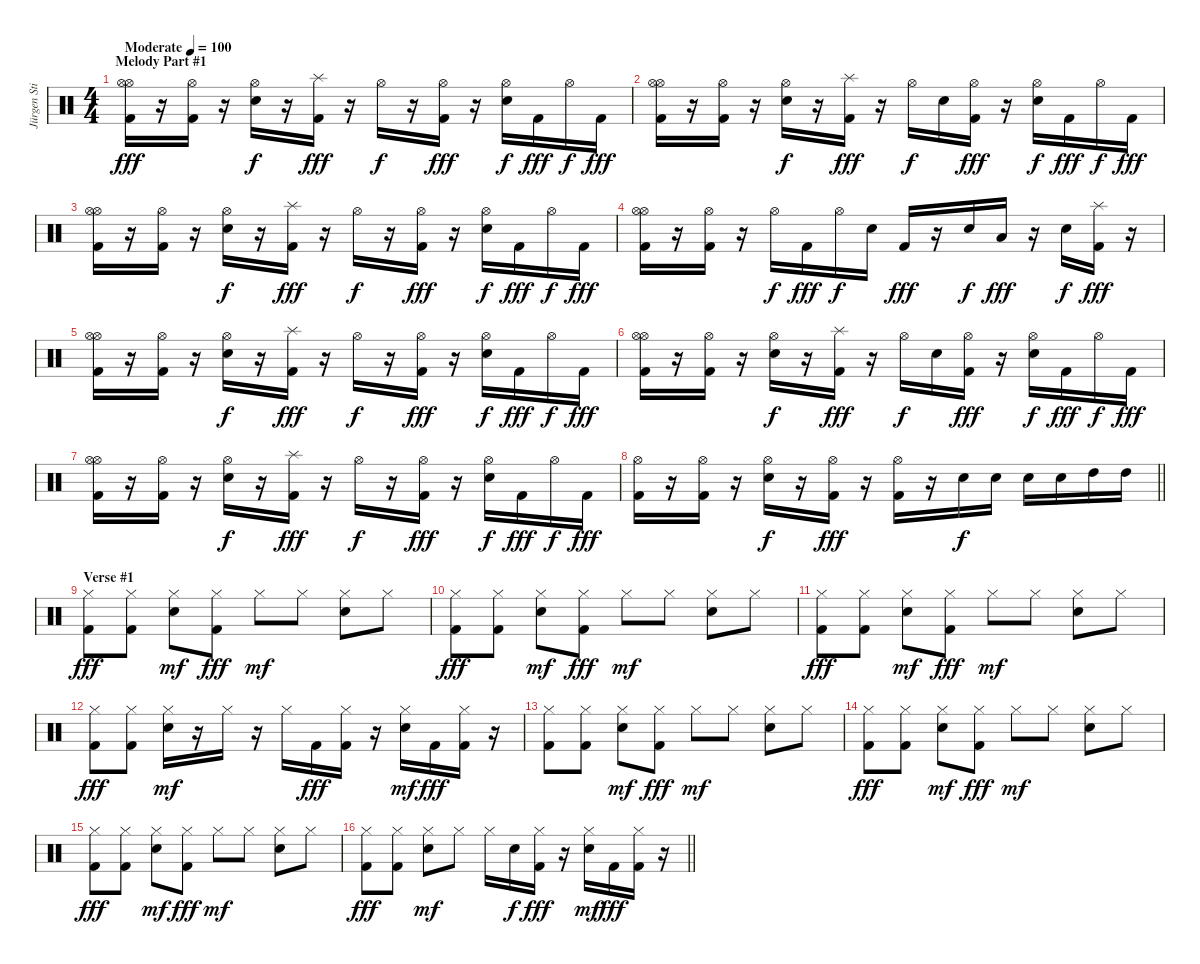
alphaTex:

\track ("Jürgen Stiehle" "Jürgen Sti") {instrument percussion}
\staff {score}
\articulation defaults
\ts (4 4)
\section ("" "Melody Part #1")
\tempo (100 "Moderate")
\clef neutral
\ks c
("Hi-Hat (open)" "Hi-Hat (open)" "Kick (hit) 2").16{dy fff} r.16 ("Hi-Hat (open)" "Kick (hit) 2").16 r.16 ("Hi-Hat (open)" "Electric Snare (hit)").16{dy f} r.16 ("Splash (hit)" "Kick (hit) 2").16{dy fff} r.16 "Hi-Hat (open)".16{dy f} r.16 ("Hi-Hat (open)" "Kick (hit) 2").16{dy fff} r.16 ("Hi-Hat (open)" "Electric Snare (hit)").16{dy f} "Kick (hit) 2".16{dy fff} "Hi-Hat (open)".16{dy f} "Kick (hit) 2".16{dy fff} |
("Hi-Hat (open)" "Hi-Hat (open)" "Kick (hit) 2").16 r.16 ("Hi-Hat (open)" "Kick (hit) 2").16 r.16 ("Hi-Hat (open)" "Electric Snare (hit)").16{dy f} r.16 ("Splash (hit)" "Kick (hit) 2").16{dy fff} r.16 "Hi-Hat (open)".16{dy f} "Electric Snare (hit)".16 ("Hi-Hat (open)" "Kick (hit) 2").16{dy fff} r.16 ("Hi-Hat (open)" "Electric Snare (hit)").16{dy f} "Kick (hit) 2".16{dy fff} "Hi-Hat (open)".16{dy f} "Kick (hit) 2".16{dy fff} |
("Hi-Hat (open)" "Hi-Hat (open)" "Kick (hit) 2").16 r.16 ("Hi-Hat (open)" "Kick (hit) 2").16 r.16 ("Hi-Hat (open)" "Electric Snare (hit)").16{dy f} r.16 ("Splash (hit)" "Kick (hit) 2").16{dy fff} r.16 "Hi-Hat (open)".16{dy f} r.16 ("Hi-Hat (open)" "Kick (hit) 2").16{dy fff} r.16 ("Hi-Hat (open)" "Electric Snare (hit)").16{dy f} "Kick (hit) 2".16{dy fff} "Hi-Hat (open)".16{dy f} "Kick (hit) 2".16{dy fff} |
("Hi-Hat (open)" "Hi-Hat (open)" "Kick (hit) 2").16 r.16 ("Hi-Hat (open)" "Kick (hit) 2").16 r.16 "Hi-Hat (open)".16{dy f} "Kick (hit) 2".16{dy fff} "Hi-Hat (open)".16{dy f} "Electric Snare (hit)".16 "Kick (hit) 2".16{dy fff} r.16 "Electric Snare (hit)".16{dy f} "Low Tom (hit)".16{dy fff} r.16 "Electric Snare (hit)".16{dy f} ("Splash (hit)" "Kick (hit) 2").16{dy fff} r.16 |
("Hi-Hat (open)" "Hi-Hat (open)" "Kick (hit) 2").16 r.16 ("Hi-Hat (open)" "Kick (hit) 2").16 r.16 ("Hi-Hat (open)" "Electric Snare (hit)").16{dy f} r.16 ("Splash (hit)" "Kick (hit) 2").16{dy fff} r.16 "Hi-Hat (open)".16{dy f} r.16 ("Hi-Hat (open)" "Kick (hit) 2").16{dy fff} r.16 ("Hi-Hat (open)" "Electric Snare (hit)").16{dy f} "Kick (hit) 2".16{dy fff} "Hi-Hat (open)".16{dy f} "Kick (hit) 2".16{dy fff} |
("Hi-Hat (open)" "Hi-Hat (open)" "Kick (hit) 2").16 r.16 ("Hi-Hat (open)" "Kick (hit) 2").16 r.16 ("Hi-Hat (open)" "Electric Snare (hit)").16{dy f} r.16 ("Splash (hit)" "Kick (hit) 2").16{dy fff} r.16 "Hi-Hat (open)".16{dy f} "Electric Snare (hit)".16 ("Hi-Hat (open)" "Kick (hit) 2").16{dy fff} r.16 ("Hi-Hat (open)" "Electric Snare (hit)").16{dy f} "Kick (hit) 2".16{dy fff} "Hi-Hat (open)".16{dy f} "Kick (hit) 2".16{dy fff} |
("Hi-Hat (open)" "Hi-Hat (open)" "Kick (hit) 2").16 r.16 ("Hi-Hat (open)" "Kick (hit) 2").16 r.16 ("Hi-Hat (open)" "Electric Snare (hit)").16{dy f} r.16 ("Splash (hit)" "Kick (hit) 2").16{dy fff} r.16 "Hi-Hat (open)".16{dy f} r.16 ("Hi-Hat (open)" "Kick (hit) 2").16{dy fff} r.16 ("Hi-Hat (open)" "Electric Snare (hit)").16{dy f} "Kick (hit) 2".16{dy fff} "Hi-Hat (open)".16{dy f} "Kick (hit) 2".16{dy fff} |
\barLineRight lightlight
("Hi-Hat (open)" "Kick (hit) 2").16 r.16 ("Hi-Hat (open)" "Kick (hit) 2").16 r.16 ("Hi-Hat (open)" "Electric Snare (hit)").16{dy f} r.16 ("Hi-Hat (open)" "Kick (hit) 2").16{dy fff} r.16 ("Hi-Hat (open)" "Kick (hit) 2").16 r.16 "Electric Snare (hit)".16{dy f} "Electric Snare (hit)".16 "Electric Snare (hit)".16 "Electric Snare (hit)".16 "High Tom (hit)".16 "High Tom (hit)".16 |
\section ("" "Verse #1")
("Hi-Hat (closed)" "Kick (hit) 2").8{dy fff} ("Hi-Hat (closed)" "Kick (hit) 2").8 ("Hi-Hat (closed)" "Electric Snare (hit)").8{dy mf} ("Hi-Hat (closed)" "Kick (hit) 2").8{dy fff} "Hi-Hat (closed)".8{dy mf} "Hi-Hat (closed)".8 ("Hi-Hat (closed)" "Electric Snare (hit)").8 "Hi-Hat (closed)".8 |
("Hi-Hat (closed)" "Kick (hit) 2").8{dy fff} ("Hi-Hat (closed)" "Kick (hit) 2").8 ("Hi-Hat (closed)" "Electric Snare (hit)").8{dy mf} ("Hi-Hat (closed)" "Kick (hit) 2").8{dy fff} "Hi-Hat (closed)".8{dy mf} "Hi-Hat (closed)".8 ("Hi-Hat (closed)" "Electric Snare (hit)").8 "Hi-Hat (closed)".8 |
("Hi-Hat (closed)" "Kick (hit) 2").8{dy fff} ("Hi-Hat (closed)" "Kick (hit) 2").8 ("Hi-Hat (closed)" "Electric Snare (hit)").8{dy mf} ("Hi-Hat (closed)" "Kick (hit) 2").8{dy fff} "Hi-Hat (closed)".8{dy mf} "Hi-Hat (closed)".8 ("Hi-Hat (closed)" "Electric Snare (hit)").8 "Hi-Hat (closed)".8 |
("Hi-Hat (closed)" "Kick (hit) 2").8{dy fff} ("Hi-Hat (closed)" "Kick (hit) 2").8 ("Hi-Hat (closed)" "Electric Snare (hit)").16{dy mf} r.16 "Hi-Hat (closed)".16 r.16 "Hi-Hat (closed)".16 "Kick (hit) 2".16{dy fff} ("Hi-Hat (closed)" "Kick (hit) 2").16 r.16 ("Hi-Hat (closed)" "Electric Snare (hit)").16{dy mf} "Kick (hit) 2".16{dy fff} ("Hi-Hat (closed)" "Kick (hit) 2").16 r.16 |
("Hi-Hat (closed)" "Kick (hit) 2").8 ("Hi-Hat (closed)" "Kick (hit) 2").8 ("Hi-Hat (closed)" "Electric Snare (hit)").8{dy mf} ("Hi-Hat (closed)" "Kick (hit) 2").8{dy fff} "Hi-Hat (closed)".8{dy mf} "Hi-Hat (closed)".8 ("Hi-Hat (closed)" "Electric Snare (hit)").8 "Hi-Hat (closed)".8 |
("Hi-Hat (closed)" "Kick (hit) 2").8{dy fff} ("Hi-Hat (closed)" "Kick (hit) 2").8 ("Hi-Hat (closed)" "Electric Snare (hit)").8{dy mf} ("Hi-Hat (closed)" "Kick (hit) 2").8{dy fff} "Hi-Hat (closed)".8{dy mf} "Hi-Hat (closed)".8 ("Hi-Hat (closed)" "Electric Snare (hit)").8 "Hi-Hat (closed)".8 |
("Hi-Hat (closed)" "Kick (hit) 2").8{dy fff} ("Hi-Hat (closed)" "Kick (hit) 2").8 ("Hi-Hat (closed)" "Electric Snare (hit)").8{dy mf} ("Hi-Hat (closed)" "Kick (hit) 2").8{dy fff} "Hi-Hat (closed)".8{dy mf} "Hi-Hat (closed)".8 ("Hi-Hat (closed)" "Electric Snare (hit)").8 "Hi-Hat (closed)".8 |
\barLineRight lightlight
("Hi-Hat (closed)" "Kick (hit) 2").8{dy fff} ("Hi-Hat (closed)" "Kick (hit) 2").8 ("Hi-Hat (closed)" "Electric Snare (hit)").8{dy mf} "Hi-Hat (closed)".8 "Hi-Hat (closed)".16 "Electric Snare (hit)".16{dy f} ("Hi-Hat (closed)" "Kick (hit) 2").16{dy fff} r.16 ("Hi-Hat (closed)" "Electric Snare (hit)").16{dy mf} "Kick (hit) 2".16{dy fff} ("Hi-Hat (closed)" "Kick (hit) 2").16 r.16
